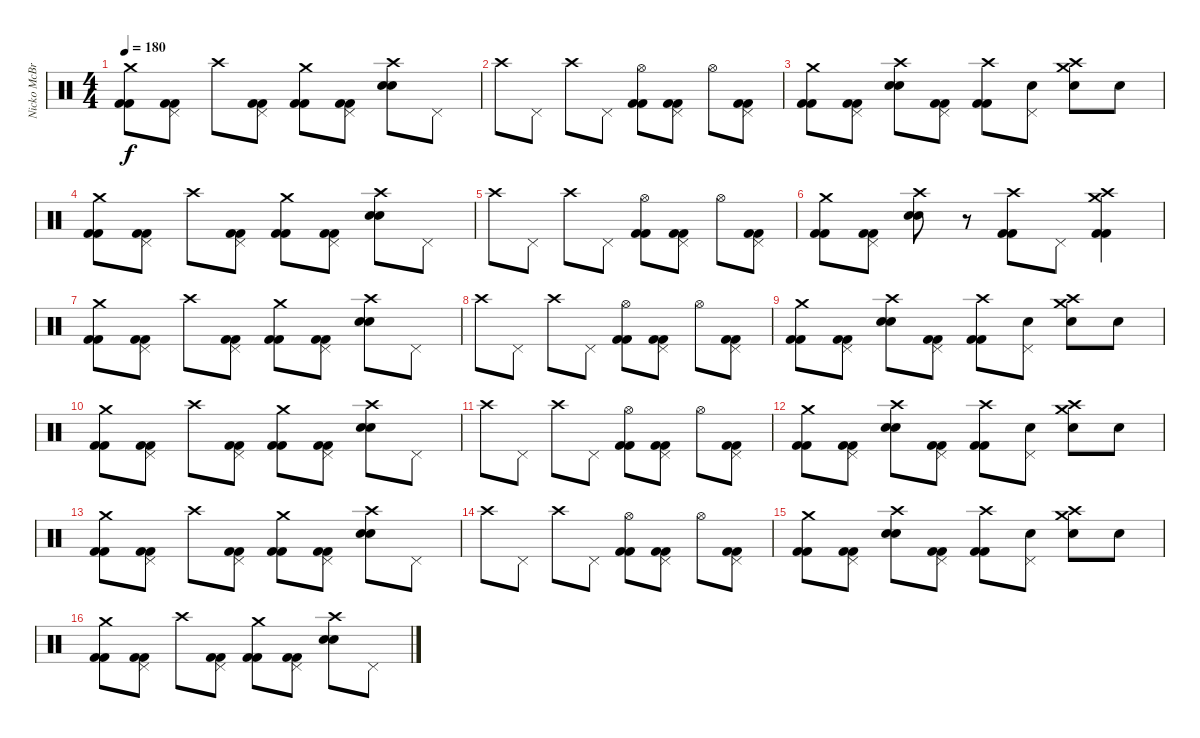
\track ("Nicko McBrain" "Nicko McBr") {instrument percussion}
\staff {score}
\articulation defaults
\ts (4 4)
\tempo 180
\clef neutral
\ks c
("Crash medium (hit)" "Kick (hit) 2" "Kick (hit) 2").8{dy f} ("Pedal Hi-Hat (hit)" "Kick (hit) 2" "Kick (hit) 2").8 "Crash high (hit)".8 ("Pedal Hi-Hat (hit)" "Kick (hit) 2" "Kick (hit) 2").8 ("Crash medium (hit)" "Kick (hit) 2" "Kick (hit) 2").8 ("Pedal Hi-Hat (hit)" "Kick (hit) 2" "Kick (hit) 2").8 ("Crash high (hit)" "Snare (hit) 2" "Snare (hit) 2").8 "Pedal Hi-Hat (hit)".8 |
"Crash high (hit)".8 "Pedal Hi-Hat (hit)".8 "Crash high (hit)".8 "Pedal Hi-Hat (hit)".8 ("Hi-Hat (open)" "Kick (hit) 2" "Kick (hit) 2").8 ("Pedal Hi-Hat (hit)" "Kick (hit) 2" "Kick (hit) 2").8 "Hi-Hat (open)".8 ("Pedal Hi-Hat (hit)" "Kick (hit) 2" "Kick (hit) 2").8 |
("Crash medium (hit)" "Kick (hit) 2" "Kick (hit) 2").8 ("Pedal Hi-Hat (hit)" "Kick (hit) 2" "Kick (hit) 2").8 ("Crash high (hit)" "Snare (hit) 2" "Snare (hit) 2").8 ("Pedal Hi-Hat (hit)" "Kick (hit) 2" "Kick (hit) 2").8 ("Crash high (hit)" "Kick (hit) 2" "Kick (hit) 2").8 ("Pedal Hi-Hat (hit)" "Snare (hit) 2").8 ("Crash high (hit)" "Crash medium (hit)" "Snare (hit) 2").8 "Snare (hit) 2".8 |
("Crash medium (hit)" "Kick (hit) 2" "Kick (hit) 2").8 ("Pedal Hi-Hat (hit)" "Kick (hit) 2" "Kick (hit) 2").8 "Crash high (hit)".8 ("Pedal Hi-Hat (hit)" "Kick (hit) 2" "Kick (hit) 2").8 ("Crash medium (hit)" "Kick (hit) 2" "Kick (hit) 2").8 ("Pedal Hi-Hat (hit)" "Kick (hit) 2" "Kick (hit) 2").8 ("Crash high (hit)" "Snare (hit) 2" "Snare (hit) 2").8 "Pedal Hi-Hat (hit)".8 |
"Crash high (hit)".8 "Pedal Hi-Hat (hit)".8 "Crash high (hit)".8 "Pedal Hi-Hat (hit)".8 ("Hi-Hat (open)" "Kick (hit) 2" "Kick (hit) 2").8 ("Pedal Hi-Hat (hit)" "Kick (hit) 2" "Kick (hit) 2").8 "Hi-Hat (open)".8 ("Pedal Hi-Hat (hit)" "Kick (hit) 2" "Kick (hit) 2").8 |
("Crash medium (hit)" "Kick (hit) 2" "Kick (hit) 2").8 ("Pedal Hi-Hat (hit)" "Kick (hit) 2" "Kick (hit) 2").8 ("Crash high (hit)" "Snare (hit) 2" "Snare (hit) 2").8 r.8 ("Crash high (hit)" "Kick (hit) 2" "Kick (hit) 2").8 "Pedal Hi-Hat (hit)".8 ("Crash high (hit)" "Crash medium (hit)" "Kick (hit) 2" "Kick (hit) 2").4 |
("Crash medium (hit)" "Kick (hit) 2" "Kick (hit) 2").8 ("Pedal Hi-Hat (hit)" "Kick (hit) 2" "Kick (hit) 2").8 "Crash high (hit)".8 ("Pedal Hi-Hat (hit)" "Kick (hit) 2" "Kick (hit) 2").8 ("Crash medium (hit)" "Kick (hit) 2" "Kick (hit) 2").8 ("Pedal Hi-Hat (hit)" "Kick (hit) 2" "Kick (hit) 2").8 ("Crash high (hit)" "Snare (hit) 2" "Snare (hit) 2").8 "Pedal Hi-Hat (hit)".8 |
"Crash high (hit)".8 "Pedal Hi-Hat (hit)".8 "Crash high (hit)".8 "Pedal Hi-Hat (hit)".8 ("Hi-Hat (open)" "Kick (hit) 2" "Kick (hit) 2").8 ("Pedal Hi-Hat (hit)" "Kick (hit) 2" "Kick (hit) 2").8 "Hi-Hat (open)".8 ("Pedal Hi-Hat (hit)" "Kick (hit) 2" "Kick (hit) 2").8 |
("Crash medium (hit)" "Kick (hit) 2" "Kick (hit) 2").8 ("Pedal Hi-Hat (hit)" "Kick (hit) 2" "Kick (hit) 2").8 ("Crash high (hit)" "Snare (hit) 2" "Snare (hit) 2").8 ("Pedal Hi-Hat (hit)" "Kick (hit) 2" "Kick (hit) 2").8 ("Crash high (hit)" "Kick (hit) 2" "Kick (hit) 2").8 ("Pedal Hi-Hat (hit)" "Snare (hit) 2").8 ("Crash high (hit)" "Crash medium (hit)" "Snare (hit) 2").8 "Snare (hit) 2".8 |
("Crash medium (hit)" "Kick (hit) 2" "Kick (hit) 2").8 ("Pedal Hi-Hat (hit)" "Kick (hit) 2" "Kick (hit) 2").8 "Crash high (hit)".8 ("Pedal Hi-Hat (hit)" "Kick (hit) 2" "Kick (hit) 2").8 ("Crash medium (hit)" "Kick (hit) 2" "Kick (hit) 2").8 ("Pedal Hi-Hat (hit)" "Kick (hit) 2" "Kick (hit) 2").8 ("Crash high (hit)" "Snare (hit) 2" "Snare (hit) 2").8 "Pedal Hi-Hat (hit)".8 |
"Crash high (hit)".8 "Pedal Hi-Hat (hit)".8 "Crash high (hit)".8 "Pedal Hi-Hat (hit)".8 ("Hi-Hat (open)" "Kick (hit) 2" "Kick (hit) 2").8 ("Pedal Hi-Hat (hit)" "Kick (hit) 2" "Kick (hit) 2").8 "Hi-Hat (open)".8 ("Pedal Hi-Hat (hit)" "Kick (hit) 2" "Kick (hit) 2").8 |
("Crash medium (hit)" "Kick (hit) 2" "Kick (hit) 2").8 ("Pedal Hi-Hat (hit)" "Kick (hit) 2" "Kick (hit) 2").8 ("Crash high (hit)" "Snare (hit) 2" "Snare (hit) 2").8 ("Pedal Hi-Hat (hit)" "Kick (hit) 2" "Kick (hit) 2").8 ("Crash high (hit)" "Kick (hit) 2" "Kick (hit) 2").8 ("Pedal Hi-Hat (hit)" "Snare (hit) 2").8 ("Crash high (hit)" "Crash medium (hit)" "Snare (hit) 2").8 "Snare (hit) 2".8 |
("Crash medium (hit)" "Kick (hit) 2" "Kick (hit) 2").8 ("Pedal Hi-Hat (hit)" "Kick (hit) 2" "Kick (hit) 2").8 "Crash high (hit)".8 ("Pedal Hi-Hat (hit)" "Kick (hit) 2" "Kick (hit) 2").8 ("Crash medium (hit)" "Kick (hit) 2" "Kick (hit) 2").8 ("Pedal Hi-Hat (hit)" "Kick (hit) 2" "Kick (hit) 2").8 ("Crash high (hit)" "Snare (hit) 2" "Snare (hit) 2").8 "Pedal Hi-Hat (hit)".8 |
"Crash high (hit)".8 "Pedal Hi-Hat (hit)".8 "Crash high (hit)".8 "Pedal Hi-Hat (hit)".8 ("Hi-Hat (open)" "Kick (hit) 2" "Kick (hit) 2").8 ("Pedal Hi-Hat (hit)" "Kick (hit) 2" "Kick (hit) 2").8 "Hi-Hat (open)".8 ("Pedal Hi-Hat (hit)" "Kick (hit) 2" "Kick (hit) 2").8 |
("Crash medium (hit)" "Kick (hit) 2" "Kick (hit) 2").8 ("Pedal Hi-Hat (hit)" "Kick (hit) 2" "Kick (hit) 2").8 ("Crash high (hit)" "Snare (hit) 2" "Snare (hit) 2").8 ("Pedal Hi-Hat (hit)" "Kick (hit) 2" "Kick (hit) 2").8 ("Crash high (hit)" "Kick (hit) 2" "Kick (hit) 2").8 ("Pedal Hi-Hat (hit)" "Snare (hit) 2").8 ("Crash high (hit)" "Crash medium (hit)" "Snare (hit) 2").8 "Snare (hit) 2".8 |
("Crash medium (hit)" "Kick (hit) 2" "Kick (hit) 2").8 ("Pedal Hi-Hat (hit)" "Kick (hit) 2" "Kick (hit) 2").8 "Crash high (hit)".8 ("Pedal Hi-Hat (hit)" "Kick (hit) 2" "Kick (hit) 2").8 ("Crash medium (hit)" "Kick (hit) 2" "Kick (hit) 2").8 ("Pedal Hi-Hat (hit)" "Kick (hit) 2" "Kick (hit) 2").8 ("Crash high (hit)" "Snare (hit) 2" "Snare (hit) 2").8 "Pedal Hi-Hat (hit)".8
